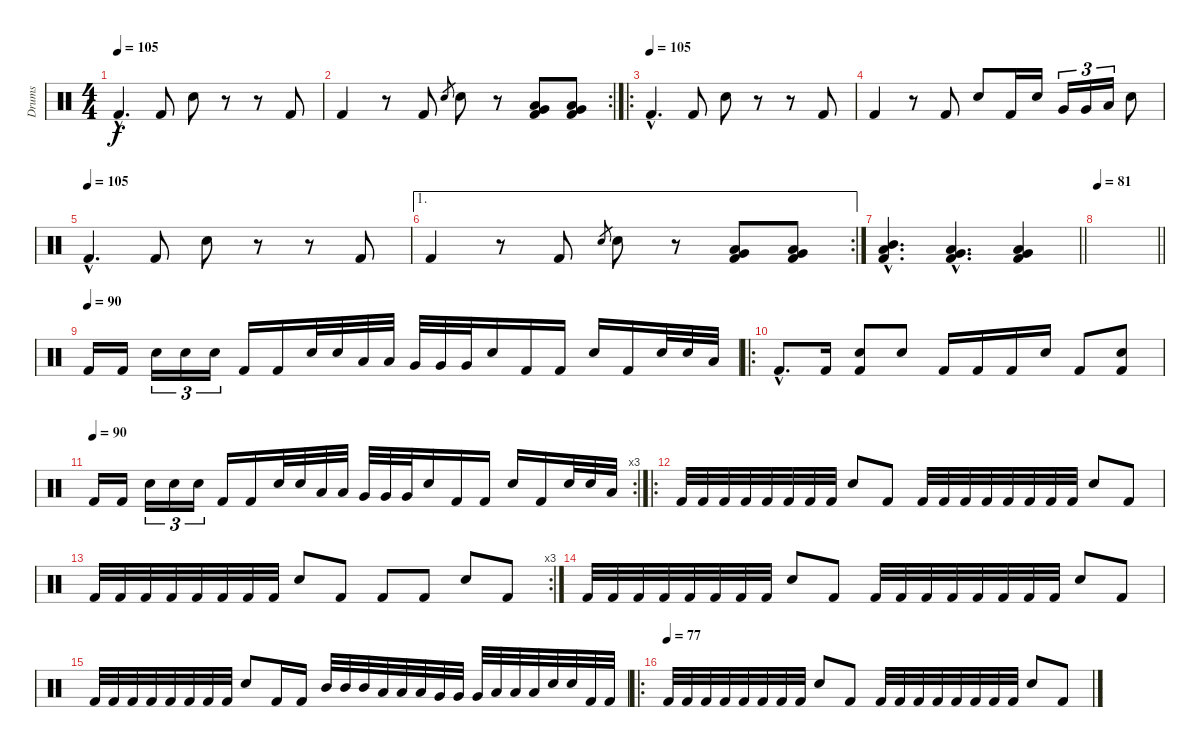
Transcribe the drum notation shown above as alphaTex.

\track ("Drums" "Drums") {instrument percussion}
\staff {score}
\articulation defaults
\ts (4 4)
\tempo 105
\clef neutral
\ks c "Kick (hit) 2"{hac}.4{d dy f} "Kick (hit) 2".8 "Electric Snare (hit)".8
r.8 r.8 "Kick (hit) 2".8 |
\rc 2 "Kick (hit) 2".4
r.8 "Kick (hit) 2".8 "Electric Snare (hit)".8{gr} "Electric Snare (hit)".8 r.8 ("Low Tom (hit)" "Very Low Tom (hit)" "Kick (hit) 2").8 ("Very Low Tom (hit)" "Low Floor Tom (hit)" "Kick (hit) 2").8 |
\ro
\tempo (105)
"Kick (hit) 2"{hac}.4{d} "Kick (hit) 2".8 "Electric Snare (hit)".8 r.8 r.8 "Kick (hit) 2".8 |
"Kick (hit) 2".4 r.8 "Kick (hit) 2".8 "Electric Snare (hit)".8 "Kick (hit) 2".16 "Electric Snare (hit)".16 "Very Low Tom (hit)".16{tu (3 2)} "Very Low Tom (hit)".16{tu (3 2)} "Low Floor Tom (hit)".16{tu (3 2)} "Electric Snare (hit)".8 |
\tempo (105)
"Kick (hit) 2"{hac}.4{d} "Kick (hit) 2".8 "Electric Snare (hit)".8 r.8 r.8 "Kick (hit) 2".8 |
\ae 1
\rc 2 "Kick (hit) 2".4
r.8 "Kick (hit) 2".8 "Electric Snare (hit)".8{gr} "Electric Snare (hit)".8 r.8 ("Low Tom (hit)" "Very Low Tom (hit)" "Kick (hit) 2").8 ("Very Low Tom (hit)" "Low Floor Tom (hit)" "Kick (hit) 2").8 |
\barLineRight lightlight
("Mid Tom (hit)"{hac} "Low Tom (hit)"{hac} "Kick (hit) 2"{hac}).4{d} ("Low Tom (hit)"{hac} "Very Low Tom (hit)"{hac} "Kick (hit) 2"{hac}).4{d} ("Very Low Tom (hit)" "Low Floor Tom (hit)" "Kick (hit) 2").4 |
\tempo 81
\barLineRight lightlight
|
\tempo (90)
"Kick (hit) 2".16 "Kick (hit) 2".16 "Electric Snare (hit)".16{tu (3 2)} "Electric Snare (hit)".16{tu (3 2)} "Electric Snare (hit)".16{tu (3 2)} "Kick (hit) 2".16 "Kick (hit) 2".16 "Electric Snare (hit)".32 "Electric Snare (hit)".32 "Low Tom (hit)".32 "Low Tom (hit)".32 "Very Low Tom (hit)".32 "Very Low Tom (hit)".32 "Very Low Tom (hit)".32 "Electric Snare (hit)".16 "Kick (hit) 2".16 "Kick (hit) 2".16 "Electric Snare (hit)".16 "Kick (hit) 2".16 "Electric Snare (hit)".32 "Electric Snare (hit)".32 "Low Tom (hit)".32 |
\ro "Kick (hit) 2"{hac}.8{d} "Kick (hit) 2".16
("Electric Snare (hit)" "Kick (hit) 2").8 "Electric Snare (hit)".8 "Kick (hit) 2".16 "Kick (hit) 2".16 "Kick (hit) 2".16 "Electric Snare (hit)".16 "Kick (hit) 2".8 ("Electric Snare (hit)" "Kick (hit) 2").8 |
\rc 3
\tempo (90)
"Kick (hit) 2".16 "Kick (hit) 2".16 "Electric Snare (hit)".16{tu (3 2)} "Electric Snare (hit)".16{tu (3 2)} "Electric Snare (hit)".16{tu (3 2)} "Kick (hit) 2".16 "Kick (hit) 2".16 "Electric Snare (hit)".32 "Electric Snare (hit)".32 "Low Tom (hit)".32 "Low Tom (hit)".32 "Very Low Tom (hit)".32 "Very Low Tom (hit)".32 "Very Low Tom (hit)".32 "Electric Snare (hit)".16 "Kick (hit) 2".16 "Kick (hit) 2".16 "Electric Snare (hit)".16 "Kick (hit) 2".16 "Electric Snare (hit)".32 "Electric Snare (hit)".32 "Low Tom (hit)".32 |
\ro "Kick (hit) 2".32 "Kick (hit) 2".32 "Kick (hit) 2".32 "Kick (hit) 2".32 "Kick (hit) 2".32 "Kick (hit) 2".32 "Kick (hit) 2".32 "Kick (hit) 2".32 "Electric Snare (hit)".8 "Kick (hit) 2".8 "Kick (hit) 2".32 "Kick (hit) 2".32 "Kick (hit) 2".32 "Kick (hit) 2".32 "Kick (hit) 2".32 "Kick (hit) 2".32 "Kick (hit) 2".32 "Kick (hit) 2".32 "Electric Snare (hit)".8 "Kick (hit) 2".8
|
\rc 3 "Kick (hit) 2".32 "Kick (hit) 2".32 "Kick (hit) 2".32 "Kick (hit) 2".32 "Kick (hit) 2".32 "Kick (hit) 2".32 "Kick (hit) 2".32 "Kick (hit) 2".32 "Electric Snare (hit)".8 "Kick (hit) 2".8 "Kick (hit) 2".8 "Kick (hit) 2".8 "Electric Snare (hit)".8 "Kick (hit) 2".8
|
"Kick (hit) 2".32 "Kick (hit) 2".32 "Kick (hit) 2".32 "Kick (hit) 2".32 "Kick (hit) 2".32 "Kick (hit) 2".32 "Kick (hit) 2".32 "Kick (hit) 2".32 "Electric Snare (hit)".8 "Kick (hit) 2".8 "Kick (hit) 2".32 "Kick (hit) 2".32 "Kick (hit) 2".32 "Kick (hit) 2".32 "Kick (hit) 2".32 "Kick (hit) 2".32 "Kick (hit) 2".32 "Kick (hit) 2".32 "Electric Snare (hit)".8 "Kick (hit) 2".8 |
"Kick (hit) 2".32 "Kick (hit) 2".32 "Kick (hit) 2".32 "Kick (hit) 2".32 "Kick (hit) 2".32 "Kick (hit) 2".32 "Kick (hit) 2".32 "Kick (hit) 2".32 "Electric Snare (hit)".8 "Kick (hit) 2".16 "Kick (hit) 2".16 "Mid Tom (hit)".32 "Mid Tom (hit)".32 "Mid Tom (hit)".32 "Low Tom (hit)".32 "Low Tom (hit)".32 "Low Tom (hit)".32 "Very Low Tom (hit)".32 "Very Low Tom (hit)".32 "Very Low Tom (hit)".32 "Low Floor Tom (hit)".32 "Low Floor Tom (hit)".32 "Low Floor Tom (hit)".32 "Electric Snare (hit)".32 "Electric Snare (hit)".32 "Kick (hit) 2".32 "Kick (hit) 2".32 |
\ro
\tempo (77)
"Kick (hit) 2".32 "Kick (hit) 2".32 "Kick (hit) 2".32 "Kick (hit) 2".32 "Kick (hit) 2".32 "Kick (hit) 2".32 "Kick (hit) 2".32 "Kick (hit) 2".32 "Electric Snare (hit)".8 "Kick (hit) 2".8 "Kick (hit) 2".32 "Kick (hit) 2".32 "Kick (hit) 2".32 "Kick (hit) 2".32 "Kick (hit) 2".32 "Kick (hit) 2".32 "Kick (hit) 2".32 "Kick (hit) 2".32 "Electric Snare (hit)".8 "Kick (hit) 2".8
